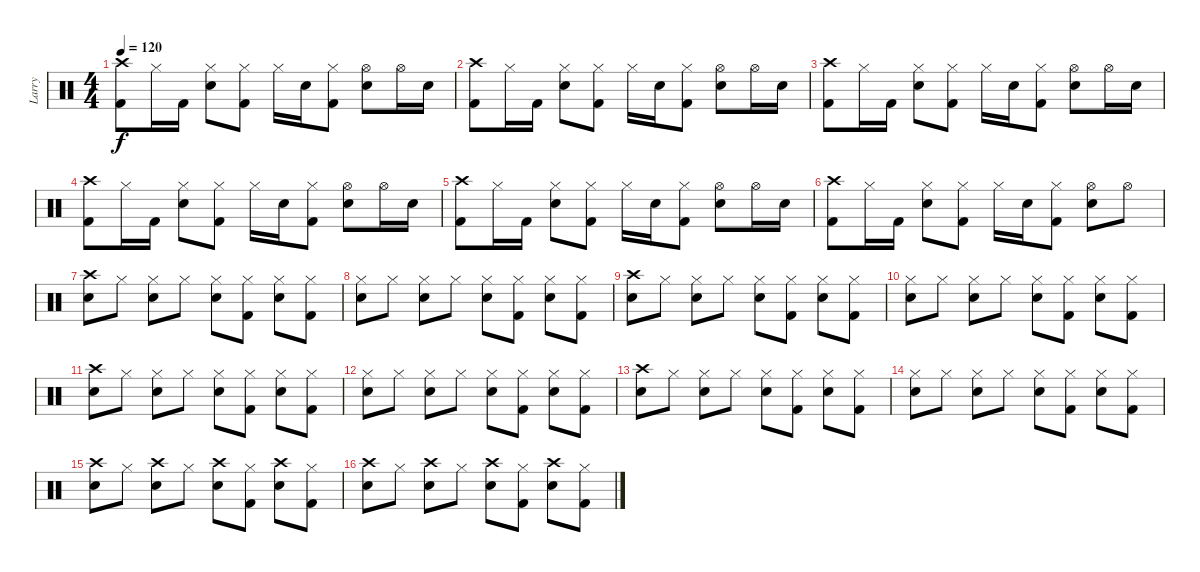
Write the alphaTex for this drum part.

\track ("Larry" "Larry") {instrument percussion}
\staff {score}
\articulation defaults
\ts (4 4)
\tempo 120
\clef neutral
\ks c
("Crash high (hit)" "Kick (hit) 2").8{dy f} "Hi-Hat (closed)".16 "Kick (hit) 2".16 ("Hi-Hat (closed)" "Snare (hit) 2").8 ("Hi-Hat (closed)" "Kick (hit) 2").8 "Hi-Hat (closed)".16 "Snare (hit) 2".16 ("Hi-Hat (closed)" "Kick (hit) 2").8 ("Hi-Hat (open)" "Snare (hit) 2").8 "Hi-Hat (open)".16 "Snare (hit) 2".16 |
("Crash high (hit)" "Kick (hit) 2").8 "Hi-Hat (closed)".16 "Kick (hit) 2".16 ("Hi-Hat (closed)" "Snare (hit) 2").8 ("Hi-Hat (closed)" "Kick (hit) 2").8 "Hi-Hat (closed)".16 "Snare (hit) 2".16 ("Hi-Hat (closed)" "Kick (hit) 2").8 ("Hi-Hat (open)" "Snare (hit) 2").8 "Hi-Hat (open)".16 "Snare (hit) 2".16 |
("Crash high (hit)" "Kick (hit) 2").8 "Hi-Hat (closed)".16 "Kick (hit) 2".16 ("Hi-Hat (closed)" "Snare (hit) 2").8 ("Hi-Hat (closed)" "Kick (hit) 2").8 "Hi-Hat (closed)".16 "Snare (hit) 2".16 ("Hi-Hat (closed)" "Kick (hit) 2").8 ("Hi-Hat (open)" "Snare (hit) 2").8 "Hi-Hat (open)".16 "Snare (hit) 2".16 |
("Crash high (hit)" "Kick (hit) 2").8 "Hi-Hat (closed)".16 "Kick (hit) 2".16 ("Hi-Hat (closed)" "Snare (hit) 2").8 ("Hi-Hat (closed)" "Kick (hit) 2").8 "Hi-Hat (closed)".16 "Snare (hit) 2".16 ("Hi-Hat (closed)" "Kick (hit) 2").8 ("Hi-Hat (open)" "Snare (hit) 2").8 "Hi-Hat (open)".16 "Snare (hit) 2".16 |
("Crash high (hit)" "Kick (hit) 2").8 "Hi-Hat (closed)".16 "Kick (hit) 2".16 ("Hi-Hat (closed)" "Snare (hit) 2").8 ("Hi-Hat (closed)" "Kick (hit) 2").8 "Hi-Hat (closed)".16 "Snare (hit) 2".16 ("Hi-Hat (closed)" "Kick (hit) 2").8 ("Hi-Hat (open)" "Snare (hit) 2").8 "Hi-Hat (open)".16 "Snare (hit) 2".16 |
("Crash high (hit)" "Kick (hit) 2").8 "Hi-Hat (closed)".16 "Kick (hit) 2".16 ("Hi-Hat (closed)" "Snare (hit) 2").8 ("Hi-Hat (closed)" "Kick (hit) 2").8 "Hi-Hat (closed)".16 "Snare (hit) 2".16 ("Hi-Hat (closed)" "Kick (hit) 2").8 ("Hi-Hat (open)" "Snare (hit) 2").8 "Hi-Hat (open)".8 |
("Crash high (hit)" "Snare (hit) 2").8 "Hi-Hat (closed)".8 ("Hi-Hat (closed)" "Snare (hit) 2").8 "Hi-Hat (closed)".8 ("Hi-Hat (closed)" "Snare (hit) 2").8 ("Hi-Hat (closed)" "Kick (hit) 2").8 ("Hi-Hat (closed)" "Snare (hit) 2").8 ("Hi-Hat (closed)" "Kick (hit) 2").8 |
("Hi-Hat (closed)" "Snare (hit) 2").8 "Hi-Hat (closed)".8 ("Hi-Hat (closed)" "Snare (hit) 2").8 "Hi-Hat (closed)".8 ("Hi-Hat (closed)" "Snare (hit) 2").8 ("Hi-Hat (closed)" "Kick (hit) 2").8 ("Hi-Hat (closed)" "Snare (hit) 2").8 ("Hi-Hat (closed)" "Kick (hit) 2").8 |
("Crash high (hit)" "Snare (hit) 2").8 "Hi-Hat (closed)".8 ("Hi-Hat (closed)" "Snare (hit) 2").8 "Hi-Hat (closed)".8 ("Hi-Hat (closed)" "Snare (hit) 2").8 ("Hi-Hat (closed)" "Kick (hit) 2").8 ("Hi-Hat (closed)" "Snare (hit) 2").8 ("Hi-Hat (closed)" "Kick (hit) 2").8 |
("Hi-Hat (closed)" "Snare (hit) 2").8 "Hi-Hat (closed)".8 ("Hi-Hat (closed)" "Snare (hit) 2").8 "Hi-Hat (closed)".8 ("Hi-Hat (closed)" "Snare (hit) 2").8 ("Hi-Hat (closed)" "Kick (hit) 2").8 ("Hi-Hat (closed)" "Snare (hit) 2").8 ("Hi-Hat (closed)" "Kick (hit) 2").8 |
("Crash high (hit)" "Snare (hit) 2").8 "Hi-Hat (closed)".8 ("Hi-Hat (closed)" "Snare (hit) 2").8 "Hi-Hat (closed)".8 ("Hi-Hat (closed)" "Snare (hit) 2").8 ("Hi-Hat (closed)" "Kick (hit) 2").8 ("Hi-Hat (closed)" "Snare (hit) 2").8 ("Hi-Hat (closed)" "Kick (hit) 2").8 |
("Hi-Hat (closed)" "Snare (hit) 2").8 "Hi-Hat (closed)".8 ("Hi-Hat (closed)" "Snare (hit) 2").8 "Hi-Hat (closed)".8 ("Hi-Hat (closed)" "Snare (hit) 2").8 ("Hi-Hat (closed)" "Kick (hit) 2").8 ("Hi-Hat (closed)" "Snare (hit) 2").8 ("Hi-Hat (closed)" "Kick (hit) 2").8 |
("Crash high (hit)" "Snare (hit) 2").8 "Hi-Hat (closed)".8 ("Hi-Hat (closed)" "Snare (hit) 2").8 "Hi-Hat (closed)".8 ("Hi-Hat (closed)" "Snare (hit) 2").8 ("Hi-Hat (closed)" "Kick (hit) 2").8 ("Hi-Hat (closed)" "Snare (hit) 2").8 ("Hi-Hat (closed)" "Kick (hit) 2").8 |
("Hi-Hat (closed)" "Snare (hit) 2").8 "Hi-Hat (closed)".8 ("Hi-Hat (closed)" "Snare (hit) 2").8 "Hi-Hat (closed)".8 ("Hi-Hat (closed)" "Snare (hit) 2").8 ("Hi-Hat (closed)" "Kick (hit) 2").8 ("Hi-Hat (closed)" "Snare (hit) 2").8 ("Hi-Hat (closed)" "Kick (hit) 2").8 |
("Crash high (hit)" "Snare (hit) 2").8 "Hi-Hat (closed)".8 ("Crash high (hit)" "Snare (hit) 2").8 "Hi-Hat (closed)".8 ("Crash high (hit)" "Snare (hit) 2").8 ("Hi-Hat (closed)" "Kick (hit) 2").8 ("Crash high (hit)" "Snare (hit) 2").8 ("Hi-Hat (closed)" "Kick (hit) 2").8 |
("Crash high (hit)" "Snare (hit) 2").8 "Hi-Hat (closed)".8 ("Crash high (hit)" "Snare (hit) 2").8 "Hi-Hat (closed)".8 ("Crash high (hit)" "Snare (hit) 2").8 ("Hi-Hat (closed)" "Kick (hit) 2").8 ("Crash high (hit)" "Snare (hit) 2").8 ("Hi-Hat (closed)" "Kick (hit) 2").8
